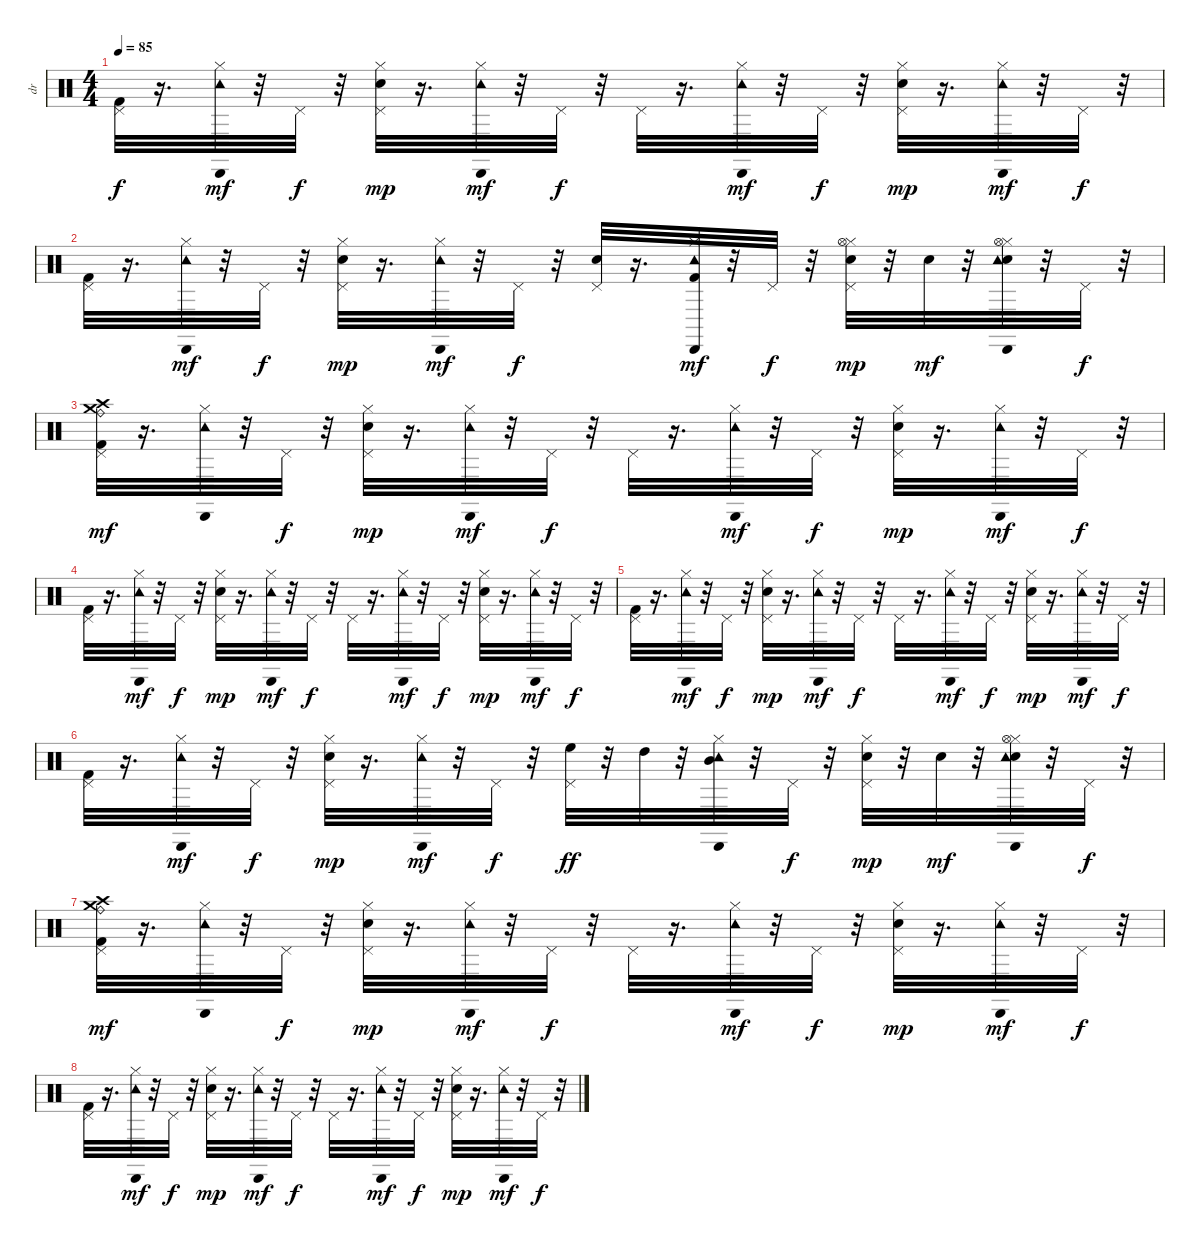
\track ("dr" "dr") {instrument percussion}
\staff {score}
\articulation defaults
\ts (4 4)
\tempo 85
\clef neutral
\ks c
("Pedal Hi-Hat (hit)" "Kick (hit) 2").32{dy f} r.16{d} ("Hi-Hat (closed)" "Cabasa (hit)" "Tambourine (hit)").32{dy mf} r.32 "Pedal Hi-Hat (hit)".32{dy f} r.32 ("Electric Snare (hit)" "Pedal Hi-Hat (hit)" "Hi-Hat (closed)").32{dy mp} r.16{d} ("Hi-Hat (closed)" "Cabasa (hit)" "Tambourine (hit)").32{dy mf} r.32 "Pedal Hi-Hat (hit)".32{dy f} r.32 "Pedal Hi-Hat (hit)".32 r.16{d} ("Hi-Hat (closed)" "Cabasa (hit)" "Tambourine (hit)").32{dy mf} r.32 "Pedal Hi-Hat (hit)".32{dy f} r.32 ("Electric Snare (hit)" "Pedal Hi-Hat (hit)" "Hi-Hat (closed)").32{dy mp} r.16{d} ("Hi-Hat (closed)" "Cabasa (hit)" "Tambourine (hit)").32{dy mf} r.32 "Pedal Hi-Hat (hit)".32{dy f} r.32 |
("Pedal Hi-Hat (hit)" "Kick (hit) 2").32 r.16{d} ("Hi-Hat (closed)" "Cabasa (hit)" "Tambourine (hit)").32{dy mf} r.32 "Pedal Hi-Hat (hit)".32{dy f} r.32 ("Electric Snare (hit)" "Pedal Hi-Hat (hit)" "Hi-Hat (closed)").32{dy mp} r.16{d} ("Hi-Hat (closed)" "Cabasa (hit)" "Tambourine (hit)").32{dy mf} r.32 "Pedal Hi-Hat (hit)".32{dy f} r.32 ("Pedal Hi-Hat (hit)" "Snare (hit) 2").32 r.16{d} ("Hi-Hat (closed)" "Cabasa (hit)" "Kick (hit) 2" "Tambourine (hit)").32{dy mf} r.32 "Pedal Hi-Hat (hit)".32{dy f} r.32 ("Electric Snare (hit)" "Pedal Hi-Hat (hit)" "Hi-Hat (closed)" "Hi-Hat (open)").32{dy mp} r.32 "Snare (hit) 2".32{dy mf} r.32 ("Snare (hit) 2" "Hi-Hat (closed)" "Cabasa (hit)" "Tambourine (hit)" "Hi-Hat (open)").32 r.32 "Pedal Hi-Hat (hit)".32{dy f} r.32 |
("Kick (hit) 2" "Crash high (hit)" "Ride (bell)" "Crash medium (hit)" "Pedal Hi-Hat (hit)").32{dy mf} r.16{d} ("Hi-Hat (closed)" "Cabasa (hit)" "Tambourine (hit)").32 r.32 "Pedal Hi-Hat (hit)".32{dy f} r.32 ("Electric Snare (hit)" "Pedal Hi-Hat (hit)" "Hi-Hat (closed)").32{dy mp} r.16{d} ("Hi-Hat (closed)" "Cabasa (hit)" "Tambourine (hit)").32{dy mf} r.32 "Pedal Hi-Hat (hit)".32{dy f} r.32 "Pedal Hi-Hat (hit)".32 r.16{d} ("Hi-Hat (closed)" "Cabasa (hit)" "Tambourine (hit)").32{dy mf} r.32 "Pedal Hi-Hat (hit)".32{dy f} r.32 ("Electric Snare (hit)" "Pedal Hi-Hat (hit)" "Hi-Hat (closed)").32{dy mp} r.16{d} ("Hi-Hat (closed)" "Cabasa (hit)" "Tambourine (hit)").32{dy mf} r.32 "Pedal Hi-Hat (hit)".32{dy f} r.32 |
("Pedal Hi-Hat (hit)" "Kick (hit) 2").32 r.16{d} ("Hi-Hat (closed)" "Cabasa (hit)" "Tambourine (hit)").32{dy mf} r.32 "Pedal Hi-Hat (hit)".32{dy f} r.32 ("Electric Snare (hit)" "Pedal Hi-Hat (hit)" "Hi-Hat (closed)").32{dy mp} r.16{d} ("Hi-Hat (closed)" "Cabasa (hit)" "Tambourine (hit)").32{dy mf} r.32 "Pedal Hi-Hat (hit)".32{dy f} r.32 "Pedal Hi-Hat (hit)".32 r.16{d} ("Hi-Hat (closed)" "Cabasa (hit)" "Tambourine (hit)").32{dy mf} r.32 "Pedal Hi-Hat (hit)".32{dy f} r.32 ("Electric Snare (hit)" "Pedal Hi-Hat (hit)" "Hi-Hat (closed)").32{dy mp} r.16{d} ("Hi-Hat (closed)" "Cabasa (hit)" "Tambourine (hit)").32{dy mf} r.32 "Pedal Hi-Hat (hit)".32{dy f} r.32 |
("Pedal Hi-Hat (hit)" "Kick (hit) 2").32 r.16{d} ("Hi-Hat (closed)" "Cabasa (hit)" "Tambourine (hit)").32{dy mf} r.32 "Pedal Hi-Hat (hit)".32{dy f} r.32 ("Electric Snare (hit)" "Pedal Hi-Hat (hit)" "Hi-Hat (closed)").32{dy mp} r.16{d} ("Hi-Hat (closed)" "Cabasa (hit)" "Tambourine (hit)").32{dy mf} r.32 "Pedal Hi-Hat (hit)".32{dy f} r.32 "Pedal Hi-Hat (hit)".32 r.16{d} ("Hi-Hat (closed)" "Cabasa (hit)" "Tambourine (hit)").32{dy mf} r.32 "Pedal Hi-Hat (hit)".32{dy f} r.32 ("Electric Snare (hit)" "Pedal Hi-Hat (hit)" "Hi-Hat (closed)").32{dy mp} r.16{d} ("Hi-Hat (closed)" "Cabasa (hit)" "Tambourine (hit)").32{dy mf} r.32 "Pedal Hi-Hat (hit)".32{dy f} r.32 |
("Pedal Hi-Hat (hit)" "Kick (hit) 2").32 r.16{d} ("Hi-Hat (closed)" "Cabasa (hit)" "Tambourine (hit)").32{dy mf} r.32 "Pedal Hi-Hat (hit)".32{dy f} r.32 ("Electric Snare (hit)" "Pedal Hi-Hat (hit)" "Hi-Hat (closed)").32{dy mp} r.16{d} ("Hi-Hat (closed)" "Cabasa (hit)" "Tambourine (hit)").32{dy mf} r.32 "Pedal Hi-Hat (hit)".32{dy f} r.32 ("Pedal Hi-Hat (hit)" "High Floor Tom (hit)").32{dy ff} r.32 "High Tom (hit)".32 r.32 ("Hi-Hat (closed)" "Cabasa (hit)" "Tambourine (hit)" "Mid Tom (hit)").32 r.32 "Pedal Hi-Hat (hit)".32{dy f} r.32 ("Electric Snare (hit)" "Pedal Hi-Hat (hit)" "Hi-Hat (closed)").32{dy mp} r.32 "Snare (hit) 2".32{dy mf} r.32 ("Snare (hit) 2" "Hi-Hat (closed)" "Cabasa (hit)" "Tambourine (hit)" "Hi-Hat (open)").32 r.32 "Pedal Hi-Hat (hit)".32{dy f} r.32 |
("Kick (hit) 2" "Crash high (hit)" "Ride (bell)" "Crash medium (hit)" "Pedal Hi-Hat (hit)").32{dy mf} r.16{d} ("Hi-Hat (closed)" "Cabasa (hit)" "Tambourine (hit)").32 r.32 "Pedal Hi-Hat (hit)".32{dy f} r.32 ("Electric Snare (hit)" "Pedal Hi-Hat (hit)" "Hi-Hat (closed)").32{dy mp} r.16{d} ("Hi-Hat (closed)" "Cabasa (hit)" "Tambourine (hit)").32{dy mf} r.32 "Pedal Hi-Hat (hit)".32{dy f} r.32 "Pedal Hi-Hat (hit)".32 r.16{d} ("Hi-Hat (closed)" "Cabasa (hit)" "Tambourine (hit)").32{dy mf} r.32 "Pedal Hi-Hat (hit)".32{dy f} r.32 ("Electric Snare (hit)" "Pedal Hi-Hat (hit)" "Hi-Hat (closed)").32{dy mp} r.16{d} ("Cabasa (hit)" "Tambourine (hit)" "Hi-Hat (closed)").32{dy mf} r.32 "Pedal Hi-Hat (hit)".32{dy f} r.32 |
("Pedal Hi-Hat (hit)" "Kick (hit) 2").32 r.16{d} ("Hi-Hat (closed)" "Cabasa (hit)" "Tambourine (hit)").32{dy mf} r.32 "Pedal Hi-Hat (hit)".32{dy f} r.32 ("Electric Snare (hit)" "Pedal Hi-Hat (hit)" "Hi-Hat (closed)").32{dy mp} r.16{d} ("Hi-Hat (closed)" "Cabasa (hit)" "Tambourine (hit)").32{dy mf} r.32 "Pedal Hi-Hat (hit)".32{dy f} r.32 "Pedal Hi-Hat (hit)".32 r.16{d} ("Hi-Hat (closed)" "Cabasa (hit)" "Tambourine (hit)").32{dy mf} r.32 "Pedal Hi-Hat (hit)".32{dy f} r.32 ("Electric Snare (hit)" "Pedal Hi-Hat (hit)" "Hi-Hat (closed)").32{dy mp} r.16{d} ("Hi-Hat (closed)" "Cabasa (hit)" "Tambourine (hit)").32{dy mf} r.32 "Pedal Hi-Hat (hit)".32{dy f} r.32
